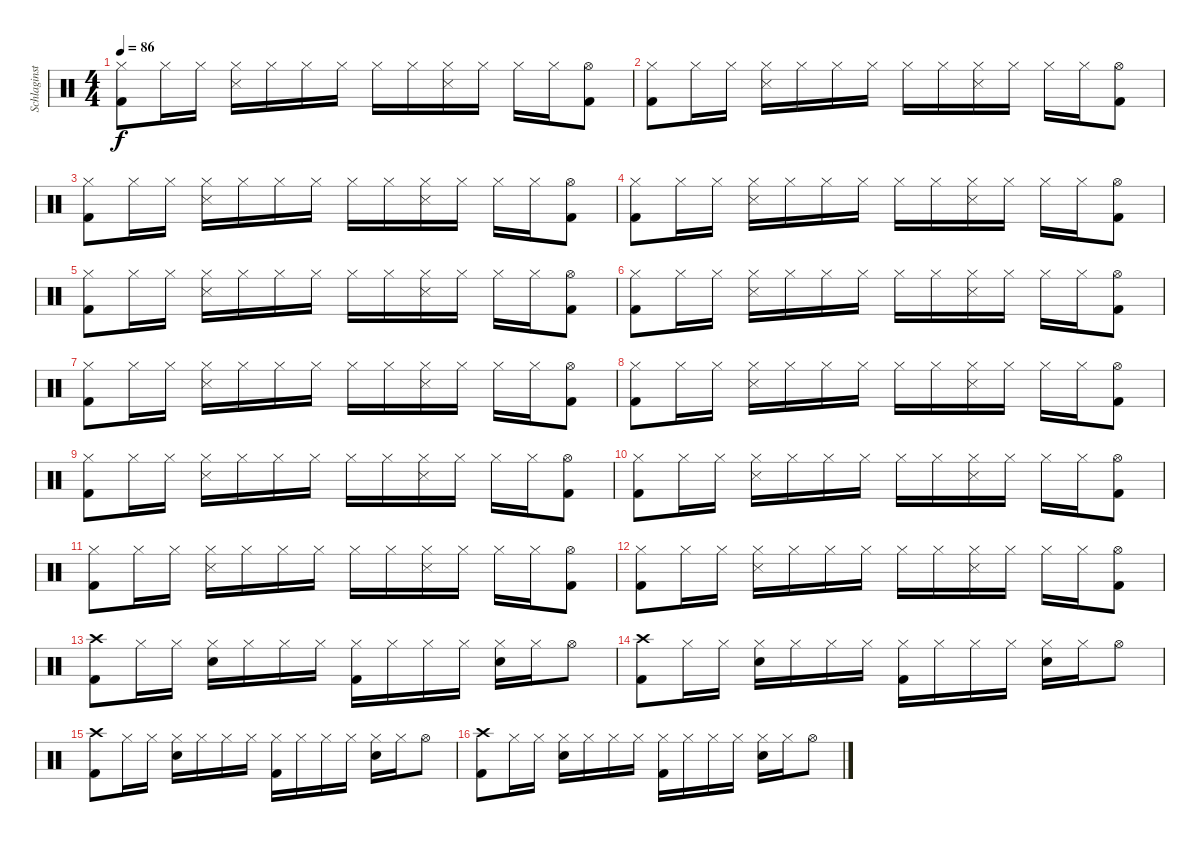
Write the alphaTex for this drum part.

\track ("Schlaginstrumente - Auswahl" "Schlaginst") {instrument percussion}
\staff {score}
\articulation defaults
\ts (4 4)
\tempo 86
\clef neutral
\ks c
("Hi-Hat (closed)" "Kick (hit) 2").8{dy f} "Hi-Hat (closed)".16 "Hi-Hat (closed)".16 ("Hi-Hat (closed)" "Snare (side stick) 3").16 "Hi-Hat (closed)".16 "Hi-Hat (closed)".16 "Hi-Hat (closed)".16 "Hi-Hat (closed)".16 "Hi-Hat (closed)".16 ("Hi-Hat (closed)" "Snare (side stick) 3").16 "Hi-Hat (closed)".16 "Hi-Hat (closed)".16 "Hi-Hat (closed)".16 ("Hi-Hat (open)" "Kick (hit) 2").8 |
("Hi-Hat (closed)" "Kick (hit) 2").8 "Hi-Hat (closed)".16 "Hi-Hat (closed)".16 ("Hi-Hat (closed)" "Snare (side stick) 3").16 "Hi-Hat (closed)".16 "Hi-Hat (closed)".16 "Hi-Hat (closed)".16 "Hi-Hat (closed)".16 "Hi-Hat (closed)".16 ("Hi-Hat (closed)" "Snare (side stick) 3").16 "Hi-Hat (closed)".16 "Hi-Hat (closed)".16 "Hi-Hat (closed)".16 ("Hi-Hat (open)" "Kick (hit) 2").8 |
("Hi-Hat (closed)" "Kick (hit) 2").8 "Hi-Hat (closed)".16 "Hi-Hat (closed)".16 ("Hi-Hat (closed)" "Snare (side stick) 3").16 "Hi-Hat (closed)".16 "Hi-Hat (closed)".16 "Hi-Hat (closed)".16 "Hi-Hat (closed)".16 "Hi-Hat (closed)".16 ("Hi-Hat (closed)" "Snare (side stick) 3").16 "Hi-Hat (closed)".16 "Hi-Hat (closed)".16 "Hi-Hat (closed)".16 ("Hi-Hat (open)" "Kick (hit) 2").8 |
("Hi-Hat (closed)" "Kick (hit) 2").8 "Hi-Hat (closed)".16 "Hi-Hat (closed)".16 ("Hi-Hat (closed)" "Snare (side stick) 3").16 "Hi-Hat (closed)".16 "Hi-Hat (closed)".16 "Hi-Hat (closed)".16 "Hi-Hat (closed)".16 "Hi-Hat (closed)".16 ("Hi-Hat (closed)" "Snare (side stick) 3").16 "Hi-Hat (closed)".16 "Hi-Hat (closed)".16 "Hi-Hat (closed)".16 ("Hi-Hat (open)" "Kick (hit) 2").8 |
("Hi-Hat (closed)" "Kick (hit) 2").8 "Hi-Hat (closed)".16 "Hi-Hat (closed)".16 ("Hi-Hat (closed)" "Snare (side stick) 3").16 "Hi-Hat (closed)".16 "Hi-Hat (closed)".16 "Hi-Hat (closed)".16 "Hi-Hat (closed)".16 "Hi-Hat (closed)".16 ("Hi-Hat (closed)" "Snare (side stick) 3").16 "Hi-Hat (closed)".16 "Hi-Hat (closed)".16 "Hi-Hat (closed)".16 ("Hi-Hat (open)" "Kick (hit) 2").8 |
("Hi-Hat (closed)" "Kick (hit) 2").8 "Hi-Hat (closed)".16 "Hi-Hat (closed)".16 ("Hi-Hat (closed)" "Snare (side stick) 3").16 "Hi-Hat (closed)".16 "Hi-Hat (closed)".16 "Hi-Hat (closed)".16 "Hi-Hat (closed)".16 "Hi-Hat (closed)".16 ("Hi-Hat (closed)" "Snare (side stick) 3").16 "Hi-Hat (closed)".16 "Hi-Hat (closed)".16 "Hi-Hat (closed)".16 ("Hi-Hat (open)" "Kick (hit) 2").8 |
("Hi-Hat (closed)" "Kick (hit) 2").8 "Hi-Hat (closed)".16 "Hi-Hat (closed)".16 ("Hi-Hat (closed)" "Snare (side stick) 3").16 "Hi-Hat (closed)".16 "Hi-Hat (closed)".16 "Hi-Hat (closed)".16 "Hi-Hat (closed)".16 "Hi-Hat (closed)".16 ("Hi-Hat (closed)" "Snare (side stick) 3").16 "Hi-Hat (closed)".16 "Hi-Hat (closed)".16 "Hi-Hat (closed)".16 ("Hi-Hat (open)" "Kick (hit) 2").8 |
("Hi-Hat (closed)" "Kick (hit) 2").8 "Hi-Hat (closed)".16 "Hi-Hat (closed)".16 ("Hi-Hat (closed)" "Snare (side stick) 3").16 "Hi-Hat (closed)".16 "Hi-Hat (closed)".16 "Hi-Hat (closed)".16 "Hi-Hat (closed)".16 "Hi-Hat (closed)".16 ("Hi-Hat (closed)" "Snare (side stick) 3").16 "Hi-Hat (closed)".16 "Hi-Hat (closed)".16 "Hi-Hat (closed)".16 ("Hi-Hat (open)" "Kick (hit) 2").8 |
("Hi-Hat (closed)" "Kick (hit) 2").8 "Hi-Hat (closed)".16 "Hi-Hat (closed)".16 ("Hi-Hat (closed)" "Snare (side stick) 3").16 "Hi-Hat (closed)".16 "Hi-Hat (closed)".16 "Hi-Hat (closed)".16 "Hi-Hat (closed)".16 "Hi-Hat (closed)".16 ("Hi-Hat (closed)" "Snare (side stick) 3").16 "Hi-Hat (closed)".16 "Hi-Hat (closed)".16 "Hi-Hat (closed)".16 ("Hi-Hat (open)" "Kick (hit) 2").8 |
("Hi-Hat (closed)" "Kick (hit) 2").8 "Hi-Hat (closed)".16 "Hi-Hat (closed)".16 ("Hi-Hat (closed)" "Snare (side stick) 3").16 "Hi-Hat (closed)".16 "Hi-Hat (closed)".16 "Hi-Hat (closed)".16 "Hi-Hat (closed)".16 "Hi-Hat (closed)".16 ("Hi-Hat (closed)" "Snare (side stick) 3").16 "Hi-Hat (closed)".16 "Hi-Hat (closed)".16 "Hi-Hat (closed)".16 ("Hi-Hat (open)" "Kick (hit) 2").8 |
("Hi-Hat (closed)" "Kick (hit) 2").8 "Hi-Hat (closed)".16 "Hi-Hat (closed)".16 ("Hi-Hat (closed)" "Snare (side stick) 3").16 "Hi-Hat (closed)".16 "Hi-Hat (closed)".16 "Hi-Hat (closed)".16 "Hi-Hat (closed)".16 "Hi-Hat (closed)".16 ("Hi-Hat (closed)" "Snare (side stick) 3").16 "Hi-Hat (closed)".16 "Hi-Hat (closed)".16 "Hi-Hat (closed)".16 ("Hi-Hat (open)" "Kick (hit) 2").8 |
("Hi-Hat (closed)" "Kick (hit) 2").8 "Hi-Hat (closed)".16 "Hi-Hat (closed)".16 ("Hi-Hat (closed)" "Snare (side stick) 3").16 "Hi-Hat (closed)".16 "Hi-Hat (closed)".16 "Hi-Hat (closed)".16 "Hi-Hat (closed)".16 "Hi-Hat (closed)".16 ("Hi-Hat (closed)" "Snare (side stick) 3").16 "Hi-Hat (closed)".16 "Hi-Hat (closed)".16 "Hi-Hat (closed)".16 ("Hi-Hat (open)" "Kick (hit) 2").8 |
("Crash high (hit)" "Kick (hit) 2").8 "Hi-Hat (closed)".16 "Hi-Hat (closed)".16 ("Hi-Hat (closed)" "Snare (hit) 2").16 "Hi-Hat (closed)".16 "Hi-Hat (closed)".16 "Hi-Hat (closed)".16 ("Hi-Hat (closed)" "Kick (hit) 2").16 "Hi-Hat (closed)".16 "Hi-Hat (closed)".16 "Hi-Hat (closed)".16 ("Hi-Hat (closed)" "Snare (hit) 2").16 "Hi-Hat (closed)".16 "Hi-Hat (open)".8 |
("Crash high (hit)" "Kick (hit) 2").8 "Hi-Hat (closed)".16 "Hi-Hat (closed)".16 ("Hi-Hat (closed)" "Snare (hit) 2").16 "Hi-Hat (closed)".16 "Hi-Hat (closed)".16 "Hi-Hat (closed)".16 ("Hi-Hat (closed)" "Kick (hit) 2").16 "Hi-Hat (closed)".16 "Hi-Hat (closed)".16 "Hi-Hat (closed)".16 ("Hi-Hat (closed)" "Snare (hit) 2").16 "Hi-Hat (closed)".16 "Hi-Hat (open)".8 |
("Crash high (hit)" "Kick (hit) 2").8 "Hi-Hat (closed)".16 "Hi-Hat (closed)".16 ("Hi-Hat (closed)" "Snare (hit) 2").16 "Hi-Hat (closed)".16 "Hi-Hat (closed)".16 "Hi-Hat (closed)".16 ("Hi-Hat (closed)" "Kick (hit) 2").16 "Hi-Hat (closed)".16 "Hi-Hat (closed)".16 "Hi-Hat (closed)".16 ("Hi-Hat (closed)" "Snare (hit) 2").16 "Hi-Hat (closed)".16 "Hi-Hat (open)".8 |
("Crash high (hit)" "Kick (hit) 2").8 "Hi-Hat (closed)".16 "Hi-Hat (closed)".16 ("Hi-Hat (closed)" "Snare (hit) 2").16 "Hi-Hat (closed)".16 "Hi-Hat (closed)".16 "Hi-Hat (closed)".16 ("Hi-Hat (closed)" "Kick (hit) 2").16 "Hi-Hat (closed)".16 "Hi-Hat (closed)".16 "Hi-Hat (closed)".16 ("Hi-Hat (closed)" "Snare (hit) 2").16 "Hi-Hat (closed)".16 "Hi-Hat (open)".8
